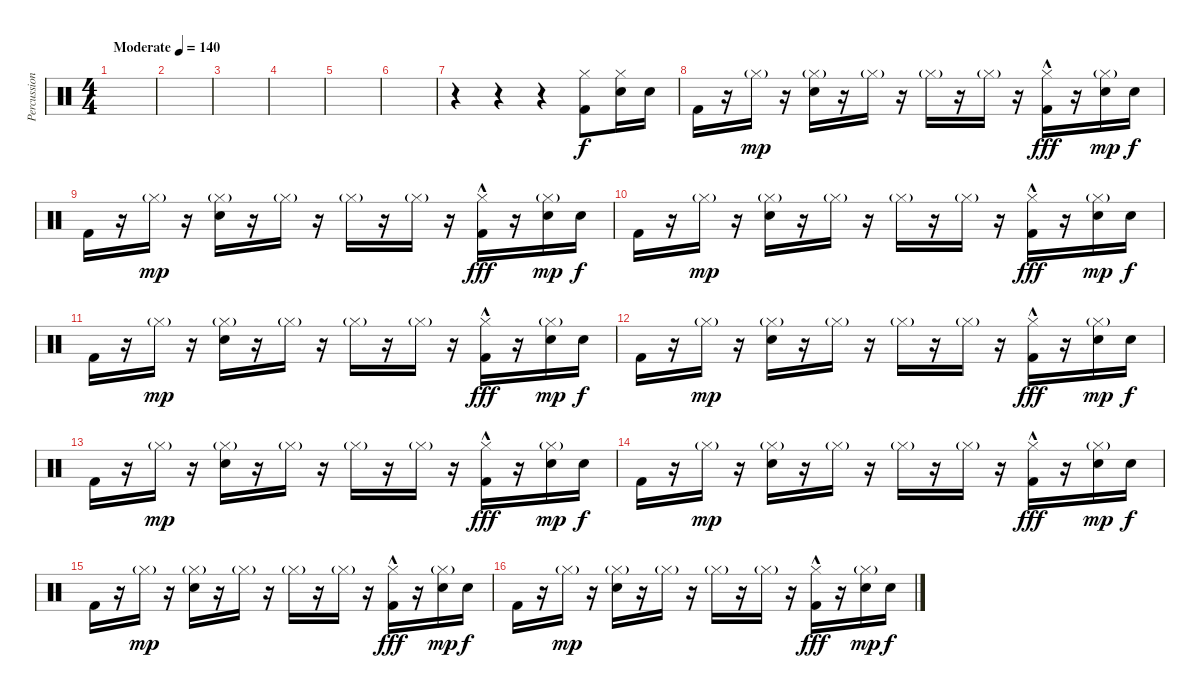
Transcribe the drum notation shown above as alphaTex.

\track ("Percussion" "Percussion") {instrument percussion}
\staff {score}
\articulation defaults
\ts (4 4)
\tempo (140 "Moderate")
\clef neutral
\ks c
|
|
|
|
|
|
r.4 r.4 r.4 ("Hi-Hat (closed)" "Kick (hit) 2").8 ("Hi-Hat (closed)" "Snare (hit) 2").16 "Snare (hit) 2".16 |
"Kick (hit) 2".16 r.16 "Hi-Hat (closed)"{g}.16{dy mp} r.16 ("Hi-Hat (closed)"{g} "Snare (hit) 2").16 r.16 "Hi-Hat (closed)"{g}.16 r.16 "Hi-Hat (closed)"{g}.16 r.16 "Hi-Hat (closed)"{g}.16 r.16 ("Hi-Hat (closed)"{hac} "Kick (hit) 2").16{dy fff} r.16 ("Hi-Hat (closed)"{g} "Snare (hit) 2").16{dy mp} "Snare (hit) 2".16{dy f} |
"Kick (hit) 2".16 r.16 "Hi-Hat (closed)"{g}.16{dy mp} r.16 ("Hi-Hat (closed)"{g} "Snare (hit) 2").16 r.16 "Hi-Hat (closed)"{g}.16 r.16 "Hi-Hat (closed)"{g}.16 r.16 "Hi-Hat (closed)"{g}.16 r.16 ("Hi-Hat (closed)"{hac} "Kick (hit) 2").16{dy fff} r.16 ("Hi-Hat (closed)"{g} "Snare (hit) 2").16{dy mp} "Snare (hit) 2".16{dy f} |
"Kick (hit) 2".16 r.16 "Hi-Hat (closed)"{g}.16{dy mp} r.16 ("Hi-Hat (closed)"{g} "Snare (hit) 2").16 r.16 "Hi-Hat (closed)"{g}.16 r.16 "Hi-Hat (closed)"{g}.16 r.16 "Hi-Hat (closed)"{g}.16 r.16 ("Hi-Hat (closed)"{hac} "Kick (hit) 2").16{dy fff} r.16 ("Hi-Hat (closed)"{g} "Snare (hit) 2").16{dy mp} "Snare (hit) 2".16{dy f} |
"Kick (hit) 2".16 r.16 "Hi-Hat (closed)"{g}.16{dy mp} r.16 ("Hi-Hat (closed)"{g} "Snare (hit) 2").16 r.16 "Hi-Hat (closed)"{g}.16 r.16 "Hi-Hat (closed)"{g}.16 r.16 "Hi-Hat (closed)"{g}.16 r.16 ("Hi-Hat (closed)"{hac} "Kick (hit) 2").16{dy fff} r.16 ("Hi-Hat (closed)"{g} "Snare (hit) 2").16{dy mp} "Snare (hit) 2".16{dy f} |
"Kick (hit) 2".16 r.16 "Hi-Hat (closed)"{g}.16{dy mp} r.16 ("Hi-Hat (closed)"{g} "Snare (hit) 2").16 r.16 "Hi-Hat (closed)"{g}.16 r.16 "Hi-Hat (closed)"{g}.16 r.16 "Hi-Hat (closed)"{g}.16 r.16 ("Hi-Hat (closed)"{hac} "Kick (hit) 2").16{dy fff} r.16 ("Hi-Hat (closed)"{g} "Snare (hit) 2").16{dy mp} "Snare (hit) 2".16{dy f} |
"Kick (hit) 2".16 r.16 "Hi-Hat (closed)"{g}.16{dy mp} r.16 ("Hi-Hat (closed)"{g} "Snare (hit) 2").16 r.16 "Hi-Hat (closed)"{g}.16 r.16 "Hi-Hat (closed)"{g}.16 r.16 "Hi-Hat (closed)"{g}.16 r.16 ("Hi-Hat (closed)"{hac} "Kick (hit) 2").16{dy fff} r.16 ("Hi-Hat (closed)"{g} "Snare (hit) 2").16{dy mp} "Snare (hit) 2".16{dy f} |
"Kick (hit) 2".16 r.16 "Hi-Hat (closed)"{g}.16{dy mp} r.16 ("Hi-Hat (closed)"{g} "Snare (hit) 2").16 r.16 "Hi-Hat (closed)"{g}.16 r.16 "Hi-Hat (closed)"{g}.16 r.16 "Hi-Hat (closed)"{g}.16 r.16 ("Hi-Hat (closed)"{hac} "Kick (hit) 2").16{dy fff} r.16 ("Hi-Hat (closed)"{g} "Snare (hit) 2").16{dy mp} "Snare (hit) 2".16{dy f} |
"Kick (hit) 2".16 r.16 "Hi-Hat (closed)"{g}.16{dy mp} r.16 ("Hi-Hat (closed)"{g} "Snare (hit) 2").16 r.16 "Hi-Hat (closed)"{g}.16 r.16 "Hi-Hat (closed)"{g}.16 r.16 "Hi-Hat (closed)"{g}.16 r.16 ("Hi-Hat (closed)"{hac} "Kick (hit) 2").16{dy fff} r.16 ("Hi-Hat (closed)"{g} "Snare (hit) 2").16{dy mp} "Snare (hit) 2".16{dy f} |
"Kick (hit) 2".16 r.16 "Hi-Hat (closed)"{g}.16{dy mp} r.16 ("Hi-Hat (closed)"{g} "Snare (hit) 2").16 r.16 "Hi-Hat (closed)"{g}.16 r.16 "Hi-Hat (closed)"{g}.16 r.16 "Hi-Hat (closed)"{g}.16 r.16 ("Hi-Hat (closed)"{hac} "Kick (hit) 2").16{dy fff} r.16 ("Hi-Hat (closed)"{g} "Snare (hit) 2").16{dy mp} "Snare (hit) 2".16{dy f}
